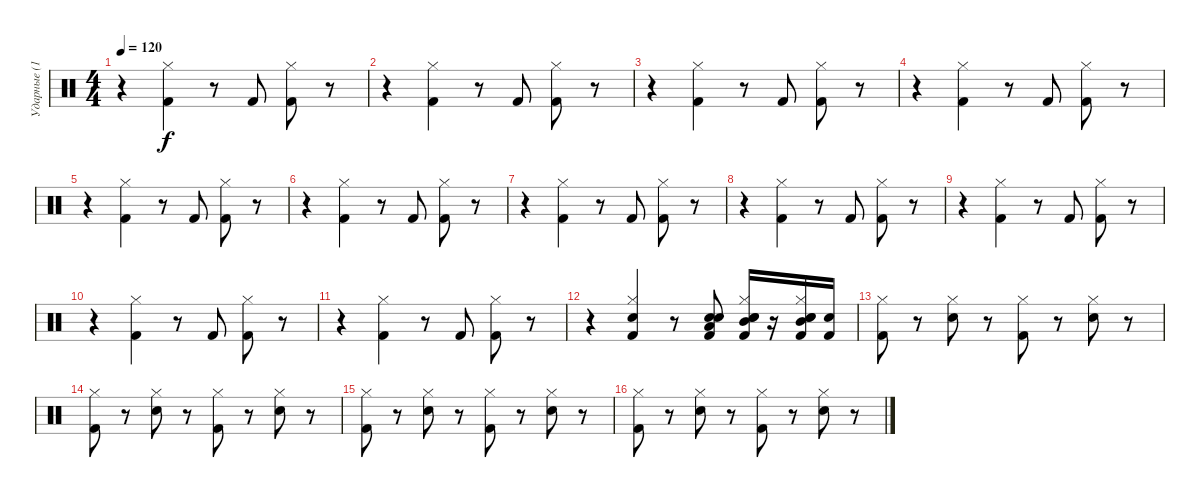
\track ("Ударные (12,36-залп) " "Ударные (1") {instrument percussion}
\staff {score}
\articulation defaults
\ts (4 4)
\tempo 120
\clef neutral
\ks aminor
r.4{dy f} ("Kick (hit) 2" "Hi-Hat (closed)").4 r.8 "Kick (hit) 2".8 ("Kick (hit) 2" "Hi-Hat (closed)").8 r.8 |
r.4 ("Kick (hit) 2" "Hi-Hat (closed)").4 r.8 "Kick (hit) 2".8 ("Kick (hit) 2" "Hi-Hat (closed)").8 r.8 |
r.4 ("Kick (hit) 2" "Hi-Hat (closed)").4 r.8 "Kick (hit) 2".8 ("Kick (hit) 2" "Hi-Hat (closed)").8 r.8 |
r.4 ("Kick (hit) 2" "Hi-Hat (closed)").4 r.8 "Kick (hit) 2".8 ("Kick (hit) 2" "Hi-Hat (closed)").8 r.8 |
r.4 ("Kick (hit) 2" "Hi-Hat (closed)").4 r.8 "Kick (hit) 2".8 ("Kick (hit) 2" "Hi-Hat (closed)").8 r.8 |
r.4 ("Kick (hit) 2" "Hi-Hat (closed)").4 r.8 "Kick (hit) 2".8 ("Kick (hit) 2" "Hi-Hat (closed)").8 r.8 |
r.4 ("Kick (hit) 2" "Hi-Hat (closed)").4 r.8 "Kick (hit) 2".8 ("Kick (hit) 2" "Hi-Hat (closed)").8 r.8 |
r.4 ("Kick (hit) 2" "Hi-Hat (closed)").4 r.8 "Kick (hit) 2".8 ("Kick (hit) 2" "Hi-Hat (closed)").8 r.8 |
r.4 ("Kick (hit) 2" "Hi-Hat (closed)").4 r.8 "Kick (hit) 2".8 ("Kick (hit) 2" "Hi-Hat (closed)").8 r.8 |
r.4 ("Kick (hit) 2" "Hi-Hat (closed)").4 r.8 "Kick (hit) 2".8 ("Kick (hit) 2" "Hi-Hat (closed)").8 r.8 |
r.4 ("Kick (hit) 2" "Hi-Hat (closed)").4 r.8 "Kick (hit) 2".8 ("Kick (hit) 2" "Hi-Hat (closed)").8 r.8 |
r.4 ("Kick (hit) 2" "Hi-Hat (closed)" "Snare (hit) 2").4 r.8 ("Kick (hit) 2" "Snare (hit) 2" "Electric Snare (hit)" "Low Floor Tom (hit)").8 ("Kick (hit) 2" "Hi-Hat (closed)" "Electric Snare (hit)" "Snare (hit) 2" "Mid Tom (hit)").16 r.16 ("Hi-Hat (closed)" "Kick (hit) 2" "Electric Snare (hit)" "Snare (hit) 2" "Mid Tom (hit)").16 ("Snare (hit) 2" "Kick (hit) 2").16 |
("Kick (hit) 2" "Hi-Hat (closed)").8 r.8 ("Snare (hit) 2" "Hi-Hat (closed)").8 r.8 ("Kick (hit) 2" "Hi-Hat (closed)").8 r.8 ("Snare (hit) 2" "Hi-Hat (closed)").8 r.8 |
("Kick (hit) 2" "Hi-Hat (closed)").8 r.8 ("Snare (hit) 2" "Hi-Hat (closed)").8 r.8 ("Kick (hit) 2" "Hi-Hat (closed)").8 r.8 ("Snare (hit) 2" "Hi-Hat (closed)").8 r.8 |
("Kick (hit) 2" "Hi-Hat (closed)").8 r.8 ("Snare (hit) 2" "Hi-Hat (closed)").8 r.8 ("Kick (hit) 2" "Hi-Hat (closed)").8 r.8 ("Snare (hit) 2" "Hi-Hat (closed)").8 r.8 |
("Kick (hit) 2" "Hi-Hat (closed)").8 r.8 ("Snare (hit) 2" "Hi-Hat (closed)").8 r.8 ("Kick (hit) 2" "Hi-Hat (closed)").8 r.8 ("Snare (hit) 2" "Hi-Hat (closed)").8 r.8
